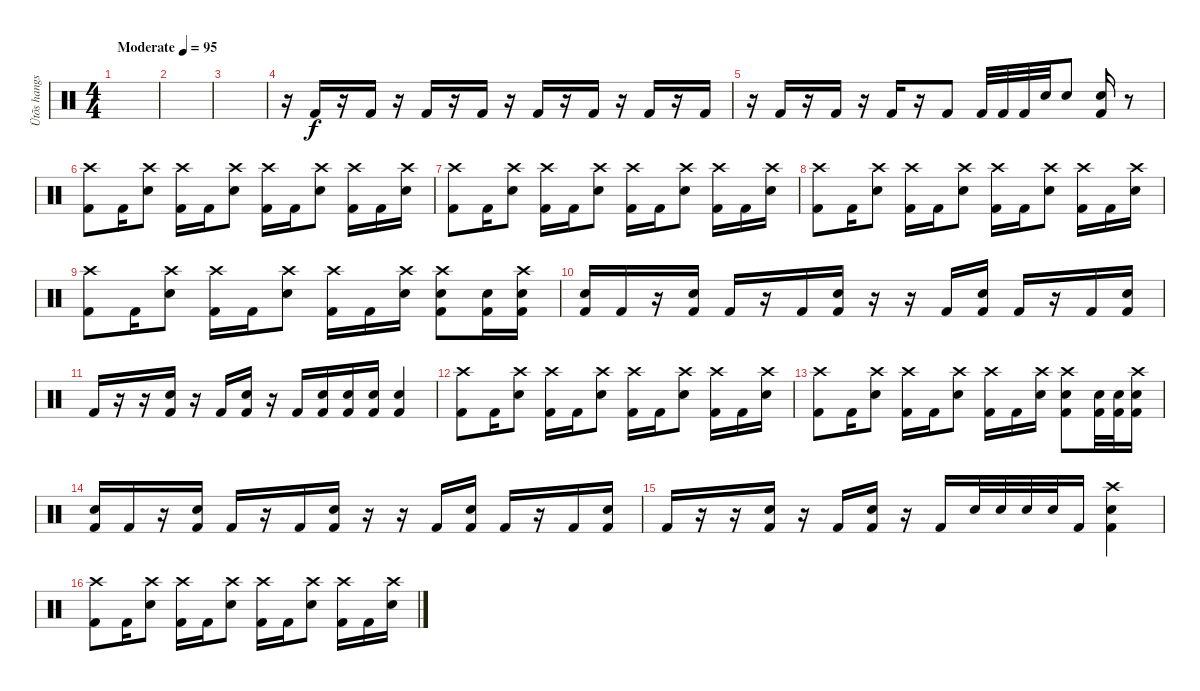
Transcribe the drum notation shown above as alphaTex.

\track ("Ütõs hangszer" "Ütõs hangs") {instrument percussion}
\staff {score}
\articulation defaults
\ts (4 4)
\tempo (95 "Moderate")
\clef neutral
\ks c
|
|
|
r.16 "Kick (hit) 2".16 r.16 "Kick (hit) 2".16 r.16 "Kick (hit) 2".16 r.16 "Kick (hit) 2".16 r.16 "Kick (hit) 2".16 r.16 "Kick (hit) 2".16 r.16 "Kick (hit) 2".16 r.16 "Kick (hit) 2".16 |
r.16 "Kick (hit) 2".16 r.16 "Kick (hit) 2".16 r.16 "Kick (hit) 2".16 r.16 "Kick (hit) 2".8 "Kick (hit) 2".32 "Kick (hit) 2".32 "Kick (hit) 2".32 "Electric Snare (hit)".32 "Electric Snare (hit)".8 ("Electric Snare (hit)" "Kick (hit) 2").16 r.8 |
("Crash high (hit)" "Kick (hit) 2").8 "Kick (hit) 2".16 ("Crash high (hit)" "Electric Snare (hit)").8 ("Crash high (hit)" "Kick (hit) 2").16 "Kick (hit) 2".16 ("Crash high (hit)" "Electric Snare (hit)").8 ("Crash high (hit)" "Kick (hit) 2").16 "Kick (hit) 2".16 ("Crash high (hit)" "Electric Snare (hit)").8 ("Crash high (hit)" "Kick (hit) 2").16 "Kick (hit) 2".16 ("Crash high (hit)" "Electric Snare (hit)").16 |
("Crash high (hit)" "Kick (hit) 2").8 "Kick (hit) 2".16 ("Crash high (hit)" "Electric Snare (hit)").8 ("Crash high (hit)" "Kick (hit) 2").16 "Kick (hit) 2".16 ("Crash high (hit)" "Electric Snare (hit)").8 ("Crash high (hit)" "Kick (hit) 2").16 "Kick (hit) 2".16 ("Crash high (hit)" "Electric Snare (hit)").8 ("Crash high (hit)" "Kick (hit) 2").16 "Kick (hit) 2".16 ("Crash high (hit)" "Electric Snare (hit)").16 |
("Crash high (hit)" "Kick (hit) 2").8 "Kick (hit) 2".16 ("Crash high (hit)" "Electric Snare (hit)").8 ("Crash high (hit)" "Kick (hit) 2").16 "Kick (hit) 2".16 ("Crash high (hit)" "Electric Snare (hit)").8 ("Crash high (hit)" "Kick (hit) 2").16 "Kick (hit) 2".16 ("Crash high (hit)" "Electric Snare (hit)").8 ("Crash high (hit)" "Kick (hit) 2").16 "Kick (hit) 2".16 ("Crash high (hit)" "Electric Snare (hit)").16 |
("Crash high (hit)" "Kick (hit) 2").8 "Kick (hit) 2".16 ("Crash high (hit)" "Electric Snare (hit)").8 ("Crash high (hit)" "Kick (hit) 2").16 "Kick (hit) 2".16 ("Crash high (hit)" "Electric Snare (hit)").8 ("Crash high (hit)" "Kick (hit) 2").16 "Kick (hit) 2".16 ("Crash high (hit)" "Electric Snare (hit)").16 ("Crash high (hit)" "Electric Snare (hit)" "Kick (hit) 2").8 ("Electric Snare (hit)" "Kick (hit) 2").16 ("Crash high (hit)" "Electric Snare (hit)" "Kick (hit) 2").16 |
("Electric Snare (hit)" "Kick (hit) 2").16 "Kick (hit) 2".16 r.16 ("Electric Snare (hit)" "Kick (hit) 2").16 "Kick (hit) 2".16 r.16 "Kick (hit) 2".16 ("Electric Snare (hit)" "Kick (hit) 2").16 r.16 r.16 "Kick (hit) 2".16 ("Electric Snare (hit)" "Kick (hit) 2").16 "Kick (hit) 2".16 r.16 "Kick (hit) 2".16 ("Electric Snare (hit)" "Kick (hit) 2").16 |
"Kick (hit) 2".16 r.16 r.16 ("Electric Snare (hit)" "Kick (hit) 2").16 r.16 "Kick (hit) 2".16 ("Electric Snare (hit)" "Kick (hit) 2").16 r.16 "Kick (hit) 2".16 ("Electric Snare (hit)" "Kick (hit) 2").16 ("Electric Snare (hit)" "Kick (hit) 2").16 ("Electric Snare (hit)" "Kick (hit) 2").16 ("Electric Snare (hit)" "Kick (hit) 2").4 |
("Crash high (hit)" "Kick (hit) 2").8 "Kick (hit) 2".16 ("Crash high (hit)" "Electric Snare (hit)").8 ("Crash high (hit)" "Kick (hit) 2").16 "Kick (hit) 2".16 ("Crash high (hit)" "Electric Snare (hit)").8 ("Crash high (hit)" "Kick (hit) 2").16 "Kick (hit) 2".16 ("Crash high (hit)" "Electric Snare (hit)").8 ("Crash high (hit)" "Kick (hit) 2").16 "Kick (hit) 2".16 ("Crash high (hit)" "Electric Snare (hit)").16 |
("Crash high (hit)" "Kick (hit) 2").8 "Kick (hit) 2".16 ("Crash high (hit)" "Electric Snare (hit)").8 ("Crash high (hit)" "Kick (hit) 2").16 "Kick (hit) 2".16 ("Crash high (hit)" "Electric Snare (hit)").8 ("Crash high (hit)" "Kick (hit) 2").16 "Kick (hit) 2".16 ("Crash high (hit)" "Electric Snare (hit)").16 ("Crash high (hit)" "Electric Snare (hit)" "Kick (hit) 2").8 ("Electric Snare (hit)" "Kick (hit) 2").32 ("Electric Snare (hit)" "Kick (hit) 2").32 ("Crash high (hit)" "Electric Snare (hit)" "Kick (hit) 2").16 |
("Electric Snare (hit)" "Kick (hit) 2").16 "Kick (hit) 2".16 r.16 ("Electric Snare (hit)" "Kick (hit) 2").16 "Kick (hit) 2".16 r.16 "Kick (hit) 2".16 ("Electric Snare (hit)" "Kick (hit) 2").16 r.16 r.16 "Kick (hit) 2".16 ("Electric Snare (hit)" "Kick (hit) 2").16 "Kick (hit) 2".16 r.16 "Kick (hit) 2".16 ("Electric Snare (hit)" "Kick (hit) 2").16 |
"Kick (hit) 2".16 r.16 r.16 ("Electric Snare (hit)" "Kick (hit) 2").16 r.16 "Kick (hit) 2".16 ("Electric Snare (hit)" "Kick (hit) 2").16 r.16 "Kick (hit) 2".16 "Electric Snare (hit)".32 "Electric Snare (hit)".32 "Electric Snare (hit)".32 "Electric Snare (hit)".32 "Kick (hit) 2".16 ("Crash high (hit)" "Electric Snare (hit)" "Kick (hit) 2").4 |
("Crash high (hit)" "Kick (hit) 2").8 "Kick (hit) 2".16 ("Crash high (hit)" "Electric Snare (hit)").8 ("Crash high (hit)" "Kick (hit) 2").16 "Kick (hit) 2".16 ("Crash high (hit)" "Electric Snare (hit)").8 ("Crash high (hit)" "Kick (hit) 2").16 "Kick (hit) 2".16 ("Crash high (hit)" "Electric Snare (hit)").8 ("Crash high (hit)" "Kick (hit) 2").16 "Kick (hit) 2".16 ("Crash high (hit)" "Electric Snare (hit)").16
